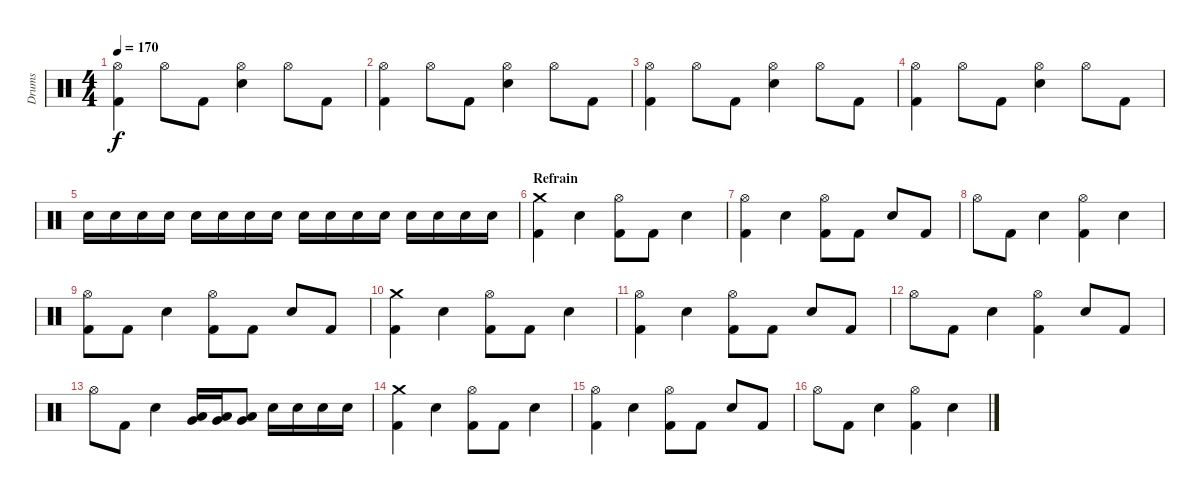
\track ("Drums" "Drums") {instrument percussion}
\staff {score}
\articulation defaults
\ts (4 4)
\tempo 170
\clef neutral
\ks c
("Hi-Hat (open)" "Kick (hit) 2").4{dy f} "Hi-Hat (open)".8 "Kick (hit) 2".8 ("Hi-Hat (open)" "Snare (hit) 2").4 "Hi-Hat (open)".8 "Kick (hit) 2".8 |
("Hi-Hat (open)" "Kick (hit) 2").4 "Hi-Hat (open)".8 "Kick (hit) 2".8 ("Hi-Hat (open)" "Snare (hit) 2").4 "Hi-Hat (open)".8 "Kick (hit) 2".8 |
("Hi-Hat (open)" "Kick (hit) 2").4 "Hi-Hat (open)".8 "Kick (hit) 2".8 ("Hi-Hat (open)" "Snare (hit) 2").4 "Hi-Hat (open)".8 "Kick (hit) 2".8 |
("Hi-Hat (open)" "Kick (hit) 2").4 "Hi-Hat (open)".8 "Kick (hit) 2".8 ("Hi-Hat (open)" "Snare (hit) 2").4 "Hi-Hat (open)".8 "Kick (hit) 2".8 |
"Snare (hit) 2".16 "Snare (hit) 2".16 "Snare (hit) 2".16 "Snare (hit) 2".16 "Snare (hit) 2".16 "Snare (hit) 2".16 "Snare (hit) 2".16 "Snare (hit) 2".16 "Snare (hit) 2".16 "Snare (hit) 2".16 "Snare (hit) 2".16 "Snare (hit) 2".16 "Snare (hit) 2".16 "Snare (hit) 2".16 "Snare (hit) 2".16 "Snare (hit) 2".16 |
\section ("" "Refrain")
("Crash medium (hit)" "Kick (hit) 2").4 "Snare (hit) 2".4 ("Hi-Hat (open)" "Kick (hit) 2").8 "Kick (hit) 2".8 "Snare (hit) 2".4 |
("Hi-Hat (open)" "Kick (hit) 2").4 "Snare (hit) 2".4 ("Hi-Hat (open)" "Kick (hit) 2").8 "Kick (hit) 2".8 "Snare (hit) 2".8 "Kick (hit) 2".8 |
"Hi-Hat (open)".8 "Kick (hit) 2".8 "Snare (hit) 2".4 ("Hi-Hat (open)" "Kick (hit) 2").4 "Snare (hit) 2".4 |
("Hi-Hat (open)" "Kick (hit) 2").8 "Kick (hit) 2".8 "Snare (hit) 2".4 ("Hi-Hat (open)" "Kick (hit) 2").8 "Kick (hit) 2".8 "Snare (hit) 2".8 "Kick (hit) 2".8 |
("Crash medium (hit)" "Kick (hit) 2").4 "Snare (hit) 2".4 ("Hi-Hat (open)" "Kick (hit) 2").8 "Kick (hit) 2".8 "Snare (hit) 2".4 |
("Hi-Hat (open)" "Kick (hit) 2").4 "Snare (hit) 2".4 ("Hi-Hat (open)" "Kick (hit) 2").8 "Kick (hit) 2".8 "Snare (hit) 2".8 "Kick (hit) 2".8 |
"Hi-Hat (open)".8 "Kick (hit) 2".8 "Snare (hit) 2".4 ("Hi-Hat (open)" "Kick (hit) 2").4 "Snare (hit) 2".8 "Kick (hit) 2".8 |
"Hi-Hat (open)".8 "Kick (hit) 2".8 "Snare (hit) 2".4 ("Low Tom (hit)" "Very Low Tom (hit)").16 ("Low Tom (hit)" "Very Low Tom (hit)").16 ("Low Tom (hit)" "Very Low Tom (hit)").8 "Snare (hit) 2".16 "Snare (hit) 2".16 "Snare (hit) 2".16 "Snare (hit) 2".16 |
("Crash medium (hit)" "Kick (hit) 2").4 "Snare (hit) 2".4 ("Hi-Hat (open)" "Kick (hit) 2").8 "Kick (hit) 2".8 "Snare (hit) 2".4 |
("Hi-Hat (open)" "Kick (hit) 2").4 "Snare (hit) 2".4 ("Hi-Hat (open)" "Kick (hit) 2").8 "Kick (hit) 2".8 "Snare (hit) 2".8 "Kick (hit) 2".8 |
"Hi-Hat (open)".8 "Kick (hit) 2".8 "Snare (hit) 2".4 ("Hi-Hat (open)" "Kick (hit) 2").4 "Snare (hit) 2".4
